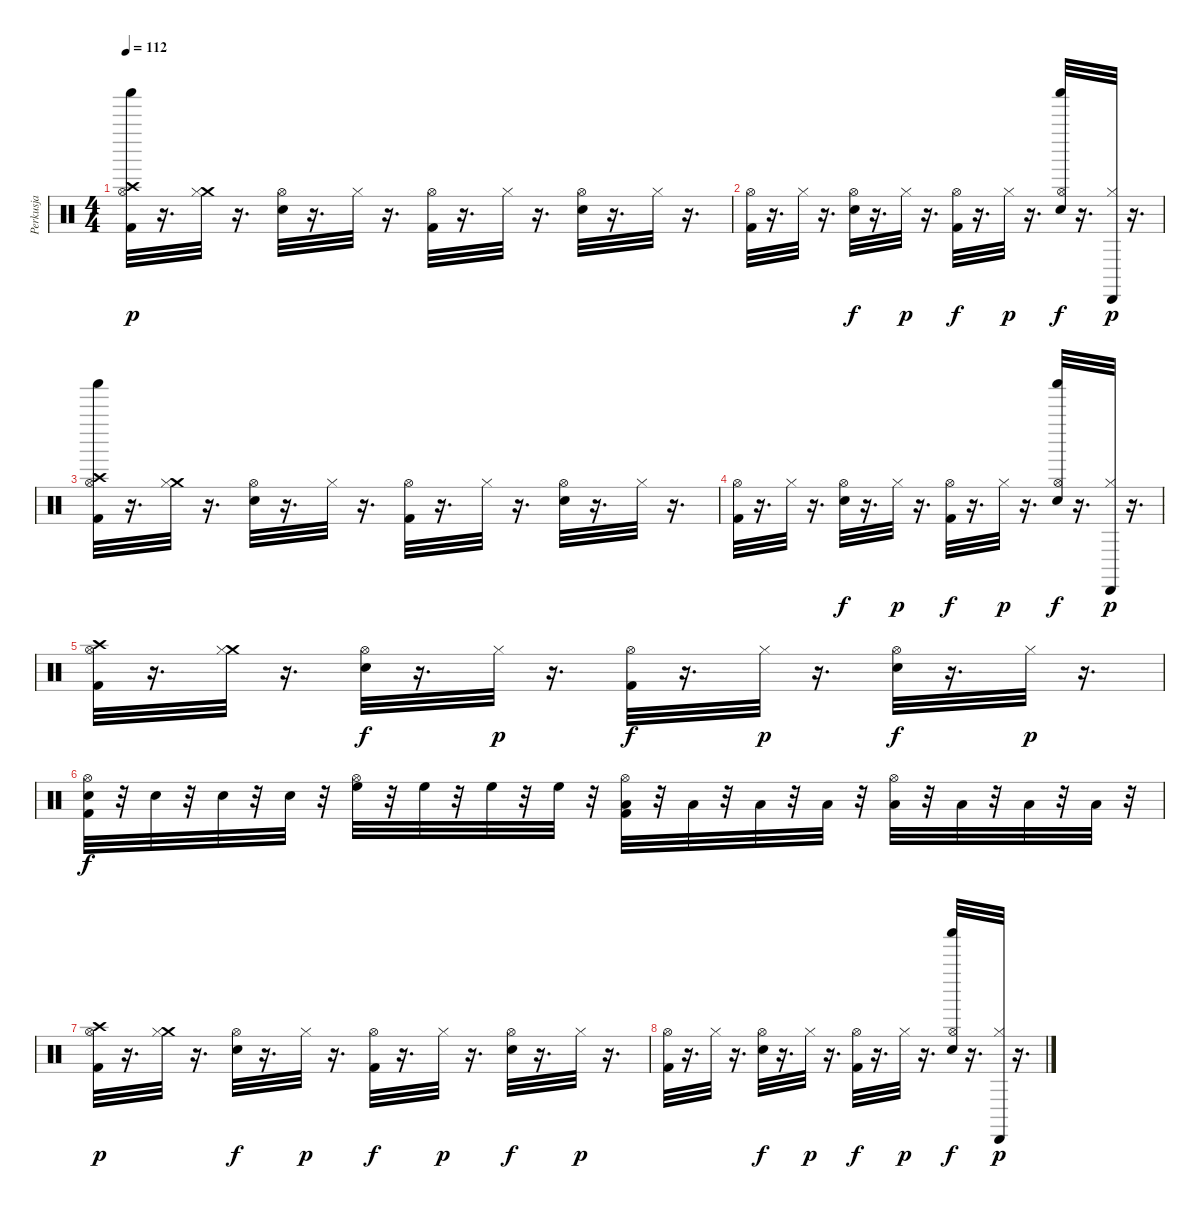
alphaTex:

\track ("Perkusja" "Perkusja") {instrument percussion}
\staff {score}
\articulation defaults
\ts (4 4)
\tempo 112
\clef neutral
\ks c
("Crash high (hit)" "Hi-Hat (open)" "Shaker (hit)" "Kick (hit) 2").32{dy p} r.16{d} ("Crash medium (hit)" "Hi-Hat (closed)").32 r.16{d} ("Hi-Hat (open)" "Snare (hit) 2").32 r.16{d} "Hi-Hat (closed)".32 r.16{d} ("Hi-Hat (open)" "Kick (hit) 2").32 r.16{d} "Hi-Hat (closed)".32 r.16{d} ("Hi-Hat (open)" "Snare (hit) 2").32 r.16{d} "Hi-Hat (closed)".32 r.16{d} |
("Hi-Hat (open)" "Kick (hit) 2").32 r.16{d} "Hi-Hat (closed)".32 r.16{d} ("Hi-Hat (open)" "Snare (hit) 2").32{dy f} r.16{d} "Hi-Hat (closed)".32{dy p} r.16{d} ("Hi-Hat (open)" "Kick (hit) 2").32{dy f} r.16{d} "Hi-Hat (closed)".32{dy p} r.16{d} ("Shaker (hit)" "Hi-Hat (open)" "Snare (hit) 2").32{dy f} r.16{d} ("Hi-Hat (closed)" "Cabasa (hit)").32{dy p} r.16{d} |
("Crash high (hit)" "Hi-Hat (open)" "Shaker (hit)" "Kick (hit) 2").32 r.16{d} ("Crash medium (hit)" "Hi-Hat (closed)").32 r.16{d} ("Hi-Hat (open)" "Snare (hit) 2").32 r.16{d} "Hi-Hat (closed)".32 r.16{d} ("Hi-Hat (open)" "Kick (hit) 2").32 r.16{d} "Hi-Hat (closed)".32 r.16{d} ("Hi-Hat (open)" "Snare (hit) 2").32 r.16{d} "Hi-Hat (closed)".32 r.16{d} |
("Hi-Hat (open)" "Kick (hit) 2").32 r.16{d} "Hi-Hat (closed)".32 r.16{d} ("Hi-Hat (open)" "Snare (hit) 2").32{dy f} r.16{d} "Hi-Hat (closed)".32{dy p} r.16{d} ("Hi-Hat (open)" "Kick (hit) 2").32{dy f} r.16{d} "Hi-Hat (closed)".32{dy p} r.16{d} ("Shaker (hit)" "Hi-Hat (open)" "Snare (hit) 2").32{dy f} r.16{d} ("Hi-Hat (closed)" "Cabasa (hit)").32{dy p} r.16{d} |
("Crash high (hit)" "Hi-Hat (open)" "Kick (hit) 2").32 r.16{d} ("Crash medium (hit)" "Hi-Hat (closed)").32 r.16{d} ("Hi-Hat (open)" "Snare (hit) 2").32{dy f} r.16{d} "Hi-Hat (closed)".32{dy p} r.16{d} ("Hi-Hat (open)" "Kick (hit) 2").32{dy f} r.16{d} "Hi-Hat (closed)".32{dy p} r.16{d} ("Hi-Hat (open)" "Snare (hit) 2").32{dy f} r.16{d} "Hi-Hat (closed)".32{dy p} r.16{d} |
("Hi-Hat (open)" "Snare (hit) 2" "Kick (hit) 2").32{dy f} r.32 "Snare (hit) 2".32 r.32 "Snare (hit) 2".32 r.32 "Snare (hit) 2".32 r.32 ("High Floor Tom (hit)" "Hi-Hat (open)").32 r.32 "High Floor Tom (hit)".32 r.32 "High Floor Tom (hit)".32 r.32 "High Floor Tom (hit)".32 r.32 ("Low Tom (hit)" "Hi-Hat (open)" "Kick (hit) 2").32 r.32 "Low Tom (hit)".32 r.32 "Low Tom (hit)".32 r.32 "Low Tom (hit)".32 r.32 ("Hi-Hat (open)" "Low Floor Tom (hit)").32 r.32 "Low Floor Tom (hit)".32 r.32 "Low Floor Tom (hit)".32 r.32 "Low Floor Tom (hit)".32 r.32 |
("Crash high (hit)" "Hi-Hat (open)" "Kick (hit) 2").32{dy p} r.16{d} ("Crash medium (hit)" "Hi-Hat (closed)").32 r.16{d} ("Hi-Hat (open)" "Snare (hit) 2").32{dy f} r.16{d} "Hi-Hat (closed)".32{dy p} r.16{d} ("Hi-Hat (open)" "Kick (hit) 2").32{dy f} r.16{d} "Hi-Hat (closed)".32{dy p} r.16{d} ("Hi-Hat (open)" "Snare (hit) 2").32{dy f} r.16{d} "Hi-Hat (closed)".32{dy p} r.16{d} |
("Hi-Hat (open)" "Kick (hit) 2").32 r.16{d} "Hi-Hat (closed)".32 r.16{d} ("Hi-Hat (open)" "Snare (hit) 2").32{dy f} r.16{d} "Hi-Hat (closed)".32{dy p} r.16{d} ("Hi-Hat (open)" "Kick (hit) 2").32{dy f} r.16{d} "Hi-Hat (closed)".32{dy p} r.16{d} ("Shaker (hit)" "Hi-Hat (open)" "Snare (hit) 2").32{dy f} r.16{d} ("Hi-Hat (closed)" "Cabasa (hit)").32{dy p} r.16{d}
